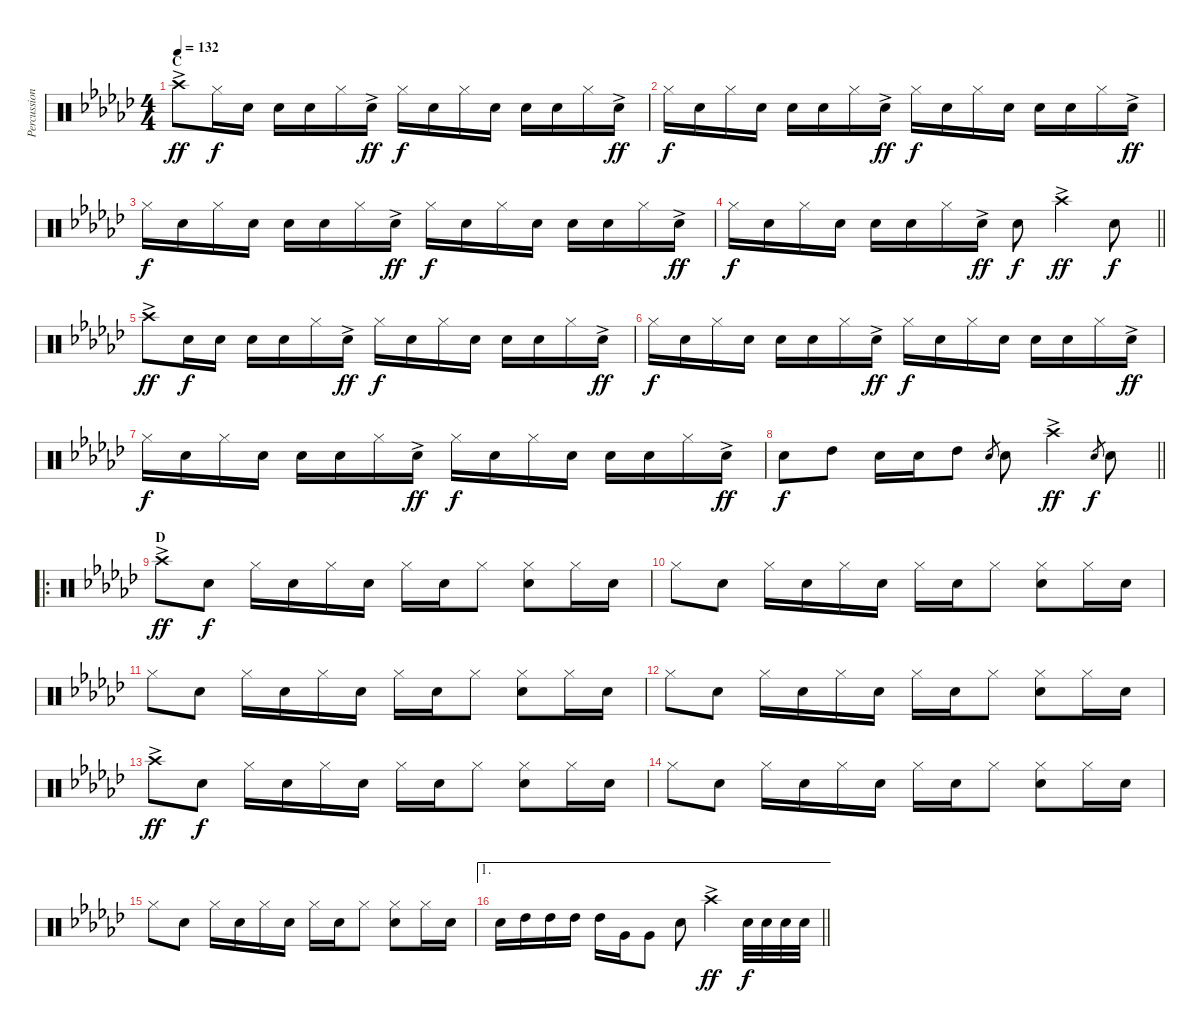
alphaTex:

\track ("Percussion hand" "Percussion") {instrument percussion}
\staff {score}
\articulation defaults
\ts (4 4)
\section ("" "C")
\tempo 132
\clef neutral
\ks gb "Crash high (hit)"{ac}.8{dy ff} "Hi-Hat (closed)".16{dy f} "Snare (hit) 2".16 "Snare (hit) 2".16 "Snare (hit) 2".16 "Hi-Hat (closed)".16 "Snare (hit) 2"{ac}.16{dy ff} "Hi-Hat (closed)".16{dy f} "Snare (hit) 2".16 "Hi-Hat (closed)".16 "Snare (hit) 2".16 "Snare (hit) 2".16 "Snare (hit) 2".16 "Hi-Hat (closed)".16 "Snare (hit) 2"{ac}.16{dy ff}
|
"Hi-Hat (closed)".16{dy f} "Snare (hit) 2".16 "Hi-Hat (closed)".16 "Snare (hit) 2".16 "Snare (hit) 2".16 "Snare (hit) 2".16 "Hi-Hat (closed)".16 "Snare (hit) 2"{ac}.16{dy ff} "Hi-Hat (closed)".16{dy f} "Snare (hit) 2".16 "Hi-Hat (closed)".16 "Snare (hit) 2".16 "Snare (hit) 2".16 "Snare (hit) 2".16 "Hi-Hat (closed)".16 "Snare (hit) 2"{ac}.16{dy ff} |
"Hi-Hat (closed)".16{dy f} "Snare (hit) 2".16 "Hi-Hat (closed)".16 "Snare (hit) 2".16 "Snare (hit) 2".16 "Snare (hit) 2".16 "Hi-Hat (closed)".16 "Snare (hit) 2"{ac}.16{dy ff} "Hi-Hat (closed)".16{dy f} "Snare (hit) 2".16 "Hi-Hat (closed)".16 "Snare (hit) 2".16 "Snare (hit) 2".16 "Snare (hit) 2".16 "Hi-Hat (closed)".16 "Snare (hit) 2"{ac}.16{dy ff} |
\barLineRight lightlight "Hi-Hat (closed)".16{dy f} "Snare (hit) 2".16 "Hi-Hat (closed)".16 "Snare (hit) 2".16 "Snare (hit) 2".16 "Snare (hit) 2".16 "Hi-Hat (closed)".16 "Snare (hit) 2"{ac}.16{dy ff} "Snare (hit) 2".8{dy f} "Crash high (hit)"{ac}.4{dy ff} "Snare (hit) 2".8{dy f}
|
"Crash high (hit)"{ac}.8{dy ff} "Snare (hit) 2".16{dy f} "Snare (hit) 2".16 "Snare (hit) 2".16 "Snare (hit) 2".16 "Hi-Hat (closed)".16 "Snare (hit) 2"{ac}.16{dy ff} "Hi-Hat (closed)".16{dy f} "Snare (hit) 2".16 "Hi-Hat (closed)".16 "Snare (hit) 2".16 "Snare (hit) 2".16 "Snare (hit) 2".16 "Hi-Hat (closed)".16 "Snare (hit) 2"{ac}.16{dy ff} |
"Hi-Hat (closed)".16{dy f} "Snare (hit) 2".16 "Hi-Hat (closed)".16 "Snare (hit) 2".16 "Snare (hit) 2".16 "Snare (hit) 2".16 "Hi-Hat (closed)".16 "Snare (hit) 2"{ac}.16{dy ff} "Hi-Hat (closed)".16{dy f} "Snare (hit) 2".16 "Hi-Hat (closed)".16 "Snare (hit) 2".16 "Snare (hit) 2".16 "Snare (hit) 2".16 "Hi-Hat (closed)".16 "Snare (hit) 2"{ac}.16{dy ff} |
"Hi-Hat (closed)".16{dy f} "Snare (hit) 2".16 "Hi-Hat (closed)".16 "Snare (hit) 2".16 "Snare (hit) 2".16 "Snare (hit) 2".16 "Hi-Hat (closed)".16 "Snare (hit) 2"{ac}.16{dy ff} "Hi-Hat (closed)".16{dy f} "Snare (hit) 2".16 "Hi-Hat (closed)".16 "Snare (hit) 2".16 "Snare (hit) 2".16 "Snare (hit) 2".16 "Hi-Hat (closed)".16 "Snare (hit) 2"{ac}.16{dy ff} |
\barLineRight lightlight "Snare (hit) 2".8{dy f} "High Tom (hit)".8 "Snare (hit) 2".16 "Snare (hit) 2".16 "High Tom (hit)".8 "Snare (hit) 2".8{gr} "Snare (hit) 2".8 "Crash high (hit)"{ac}.4{dy ff} "Snare (hit) 2".8{gr dy f} "Snare (hit) 2".8
|
\ro
\section ("" "D")
"Crash high (hit)"{ac}.8{dy ff} "Snare (hit) 2".8{dy f} "Hi-Hat (closed)".16 "Snare (hit) 2".16 "Hi-Hat (closed)".16 "Snare (hit) 2".16 "Hi-Hat (closed)".16 "Snare (hit) 2".16 "Hi-Hat (closed)".8 ("Hi-Hat (closed)" "Snare (hit) 2").8 "Hi-Hat (closed)".16 "Snare (hit) 2".16 |
"Hi-Hat (closed)".8 "Snare (hit) 2".8 "Hi-Hat (closed)".16 "Snare (hit) 2".16 "Hi-Hat (closed)".16 "Snare (hit) 2".16 "Hi-Hat (closed)".16 "Snare (hit) 2".16 "Hi-Hat (closed)".8 ("Hi-Hat (closed)" "Snare (hit) 2").8 "Hi-Hat (closed)".16 "Snare (hit) 2".16 |
"Hi-Hat (closed)".8 "Snare (hit) 2".8 "Hi-Hat (closed)".16 "Snare (hit) 2".16 "Hi-Hat (closed)".16 "Snare (hit) 2".16 "Hi-Hat (closed)".16 "Snare (hit) 2".16 "Hi-Hat (closed)".8 ("Hi-Hat (closed)" "Snare (hit) 2").8 "Hi-Hat (closed)".16 "Snare (hit) 2".16 |
"Hi-Hat (closed)".8 "Snare (hit) 2".8 "Hi-Hat (closed)".16 "Snare (hit) 2".16 "Hi-Hat (closed)".16 "Snare (hit) 2".16 "Hi-Hat (closed)".16 "Snare (hit) 2".16 "Hi-Hat (closed)".8 ("Hi-Hat (closed)" "Snare (hit) 2").8 "Hi-Hat (closed)".16 "Snare (hit) 2".16 |
"Crash high (hit)"{ac}.8{dy ff} "Snare (hit) 2".8{dy f} "Hi-Hat (closed)".16 "Snare (hit) 2".16 "Hi-Hat (closed)".16 "Snare (hit) 2".16 "Hi-Hat (closed)".16 "Snare (hit) 2".16 "Hi-Hat (closed)".8 ("Hi-Hat (closed)" "Snare (hit) 2").8 "Hi-Hat (closed)".16 "Snare (hit) 2".16 |
"Hi-Hat (closed)".8 "Snare (hit) 2".8 "Hi-Hat (closed)".16 "Snare (hit) 2".16 "Hi-Hat (closed)".16 "Snare (hit) 2".16 "Hi-Hat (closed)".16 "Snare (hit) 2".16 "Hi-Hat (closed)".8 ("Hi-Hat (closed)" "Snare (hit) 2").8 "Hi-Hat (closed)".16 "Snare (hit) 2".16 |
"Hi-Hat (closed)".8 "Snare (hit) 2".8 "Hi-Hat (closed)".16 "Snare (hit) 2".16 "Hi-Hat (closed)".16 "Snare (hit) 2".16 "Hi-Hat (closed)".16 "Snare (hit) 2".16 "Hi-Hat (closed)".8 ("Hi-Hat (closed)" "Snare (hit) 2").8 "Hi-Hat (closed)".16 "Snare (hit) 2".16 |
\ae 1
\barLineRight lightlight "Snare (hit) 2".16 "High Tom (hit)".16 "High Tom (hit)".16 "High Tom (hit)".16 "High Tom (hit)".16 "Very Low Tom (hit)".16 "Very Low Tom (hit)".8 "Snare (hit) 2".8 "Crash high (hit)"{ac}.4{dy ff} "Snare (hit) 2".32{dy f} "Snare (hit) 2".32 "Snare (hit) 2".32 "Snare (hit) 2".32
